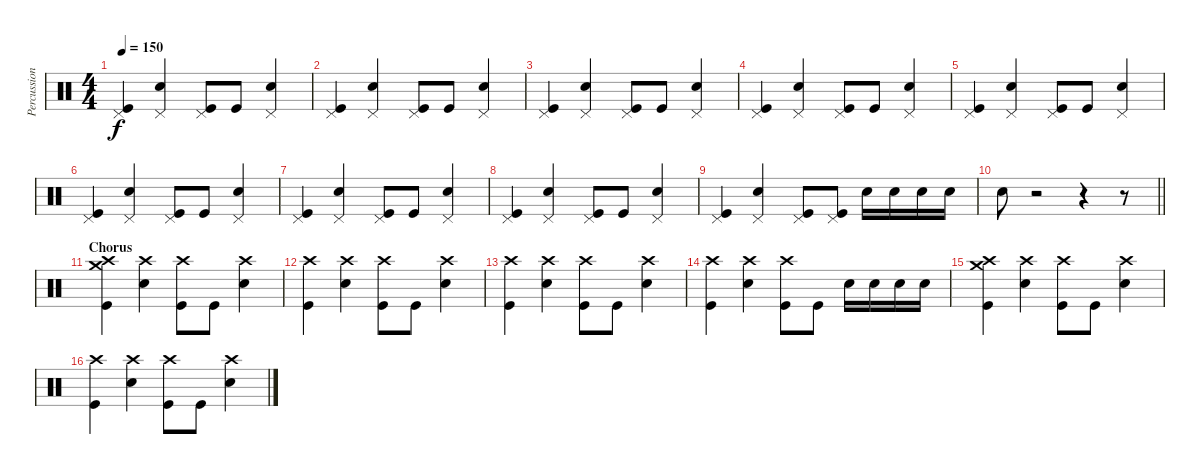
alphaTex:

\track ("Percussion" "Percussion") {instrument percussion}
\staff {score}
\articulation defaults
\ts (4 4)
\tempo 150
\clef neutral
\ks c
("Pedal Hi-Hat (hit)" "Kick (hit)").4{dy f} ("Pedal Hi-Hat (hit)" "Electric Snare (hit)").4 ("Pedal Hi-Hat (hit)" "Kick (hit)").8 "Kick (hit)".8 ("Pedal Hi-Hat (hit)" "Electric Snare (hit)").4 |
("Pedal Hi-Hat (hit)" "Kick (hit)").4 ("Pedal Hi-Hat (hit)" "Electric Snare (hit)").4 ("Pedal Hi-Hat (hit)" "Kick (hit)").8 "Kick (hit)".8 ("Pedal Hi-Hat (hit)" "Electric Snare (hit)").4 |
("Pedal Hi-Hat (hit)" "Kick (hit)").4 ("Pedal Hi-Hat (hit)" "Electric Snare (hit)").4 ("Pedal Hi-Hat (hit)" "Kick (hit)").8 "Kick (hit)".8 ("Pedal Hi-Hat (hit)" "Electric Snare (hit)").4 |
("Pedal Hi-Hat (hit)" "Kick (hit)").4 ("Pedal Hi-Hat (hit)" "Electric Snare (hit)").4 ("Pedal Hi-Hat (hit)" "Kick (hit)").8 "Kick (hit)".8 ("Pedal Hi-Hat (hit)" "Electric Snare (hit)").4 |
("Pedal Hi-Hat (hit)" "Kick (hit)").4 ("Pedal Hi-Hat (hit)" "Electric Snare (hit)").4 ("Pedal Hi-Hat (hit)" "Kick (hit)").8 "Kick (hit)".8 ("Pedal Hi-Hat (hit)" "Electric Snare (hit)").4 |
("Pedal Hi-Hat (hit)" "Kick (hit)").4 ("Pedal Hi-Hat (hit)" "Electric Snare (hit)").4 ("Pedal Hi-Hat (hit)" "Kick (hit)").8 "Kick (hit)".8 ("Pedal Hi-Hat (hit)" "Electric Snare (hit)").4 |
("Pedal Hi-Hat (hit)" "Kick (hit)").4 ("Pedal Hi-Hat (hit)" "Electric Snare (hit)").4 ("Pedal Hi-Hat (hit)" "Kick (hit)").8 "Kick (hit)".8 ("Pedal Hi-Hat (hit)" "Electric Snare (hit)").4 |
("Pedal Hi-Hat (hit)" "Kick (hit)").4 ("Pedal Hi-Hat (hit)" "Electric Snare (hit)").4 ("Pedal Hi-Hat (hit)" "Kick (hit)").8 "Kick (hit)".8 ("Pedal Hi-Hat (hit)" "Electric Snare (hit)").4 |
("Pedal Hi-Hat (hit)" "Kick (hit)").4 ("Pedal Hi-Hat (hit)" "Electric Snare (hit)").4 ("Pedal Hi-Hat (hit)" "Kick (hit)").8 ("Pedal Hi-Hat (hit)" "Kick (hit)").8 "Electric Snare (hit)".16 "Electric Snare (hit)".16 "Electric Snare (hit)".16 "Electric Snare (hit)".16 |
\barLineRight lightlight "Electric Snare (hit)".8
r.2 r.4 r.8 |
\section ("" "Chorus")
("Crash high (hit)" "Crash medium (hit)" "Kick (hit)").4 ("Crash high (hit)" "Electric Snare (hit)").4 ("Crash high (hit)" "Kick (hit)").8 "Kick (hit)".8 ("Crash high (hit)" "Electric Snare (hit)").4 |
("Crash high (hit)" "Kick (hit)").4 ("Crash high (hit)" "Electric Snare (hit)").4 ("Crash high (hit)" "Kick (hit)").8 "Kick (hit)".8 ("Crash high (hit)" "Electric Snare (hit)").4 |
("Crash high (hit)" "Kick (hit)").4 ("Crash high (hit)" "Electric Snare (hit)").4 ("Crash high (hit)" "Kick (hit)").8 "Kick (hit)".8 ("Crash high (hit)" "Electric Snare (hit)").4 |
("Crash high (hit)" "Kick (hit)").4 ("Crash high (hit)" "Electric Snare (hit)").4 ("Crash high (hit)" "Kick (hit)").8 "Kick (hit)".8 "Electric Snare (hit)".16 "Electric Snare (hit)".16 "Electric Snare (hit)".16 "Electric Snare (hit)".16 |
("Crash high (hit)" "Crash medium (hit)" "Kick (hit)").4 ("Crash high (hit)" "Electric Snare (hit)").4 ("Crash high (hit)" "Kick (hit)").8 "Kick (hit)".8 ("Crash high (hit)" "Electric Snare (hit)").4 |
("Crash high (hit)" "Kick (hit)").4 ("Crash high (hit)" "Electric Snare (hit)").4 ("Crash high (hit)" "Kick (hit)").8 "Kick (hit)".8 ("Crash high (hit)" "Electric Snare (hit)").4
